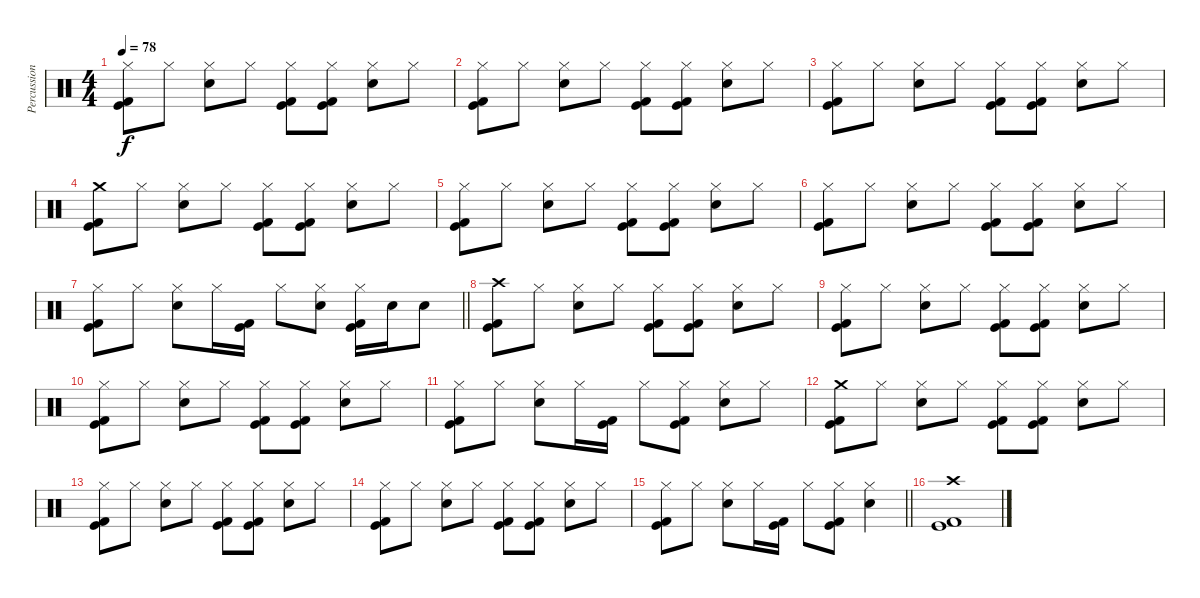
\track ("Percussion" "Percussion") {instrument percussion}
\staff {score}
\articulation defaults
\ts (4 4)
\tempo 78
\clef neutral
\ks c
("Hi-Hat (closed)" "Kick (hit)" "Kick (hit) 2").8{dy f} "Hi-Hat (closed)".8 ("Hi-Hat (closed)" "Electric Snare (hit)").8 "Hi-Hat (closed)".8 ("Hi-Hat (closed)" "Kick (hit)" "Kick (hit) 2").8 ("Hi-Hat (closed)" "Kick (hit)" "Kick (hit) 2").8 ("Hi-Hat (closed)" "Electric Snare (hit)").8 "Hi-Hat (closed)".8 |
("Hi-Hat (closed)" "Kick (hit)" "Kick (hit) 2").8 "Hi-Hat (closed)".8 ("Hi-Hat (closed)" "Electric Snare (hit)").8 "Hi-Hat (closed)".8 ("Hi-Hat (closed)" "Kick (hit)" "Kick (hit) 2").8 ("Hi-Hat (closed)" "Kick (hit)" "Kick (hit) 2").8 ("Hi-Hat (closed)" "Electric Snare (hit)").8 "Hi-Hat (closed)".8 |
("Hi-Hat (closed)" "Kick (hit)" "Kick (hit) 2").8 "Hi-Hat (closed)".8 ("Hi-Hat (closed)" "Electric Snare (hit)").8 "Hi-Hat (closed)".8 ("Hi-Hat (closed)" "Kick (hit)" "Kick (hit) 2").8 ("Hi-Hat (closed)" "Kick (hit)" "Kick (hit) 2").8 ("Hi-Hat (closed)" "Electric Snare (hit)").8 "Hi-Hat (closed)".8 |
("Crash medium (hit)" "Kick (hit)" "Kick (hit) 2").8 "Hi-Hat (closed)".8 ("Hi-Hat (closed)" "Electric Snare (hit)").8 "Hi-Hat (closed)".8 ("Hi-Hat (closed)" "Kick (hit)" "Kick (hit) 2").8 ("Hi-Hat (closed)" "Kick (hit)" "Kick (hit) 2").8 ("Hi-Hat (closed)" "Electric Snare (hit)").8 "Hi-Hat (closed)".8 |
("Hi-Hat (closed)" "Kick (hit)" "Kick (hit) 2").8 "Hi-Hat (closed)".8 ("Hi-Hat (closed)" "Electric Snare (hit)").8 "Hi-Hat (closed)".8 ("Hi-Hat (closed)" "Kick (hit)" "Kick (hit) 2").8 ("Hi-Hat (closed)" "Kick (hit)" "Kick (hit) 2").8 ("Hi-Hat (closed)" "Electric Snare (hit)").8 "Hi-Hat (closed)".8 |
("Hi-Hat (closed)" "Kick (hit)" "Kick (hit) 2").8 "Hi-Hat (closed)".8 ("Hi-Hat (closed)" "Electric Snare (hit)").8 "Hi-Hat (closed)".8 ("Hi-Hat (closed)" "Kick (hit)" "Kick (hit) 2").8 ("Hi-Hat (closed)" "Kick (hit)" "Kick (hit) 2").8 ("Hi-Hat (closed)" "Electric Snare (hit)").8 "Hi-Hat (closed)".8 |
\barLineRight lightlight
("Hi-Hat (closed)" "Kick (hit)" "Kick (hit) 2").8 "Hi-Hat (closed)".8 ("Hi-Hat (closed)" "Electric Snare (hit)").8 "Hi-Hat (closed)".16 ("Kick (hit)" "Kick (hit) 2").16 "Hi-Hat (closed)".8 ("Hi-Hat (closed)" "Electric Snare (hit)").8 ("Hi-Hat (closed)" "Kick (hit)" "Kick (hit) 2").16 "Electric Snare (hit)".16 "Electric Snare (hit)".8 |
\section ("" "")
("Crash high (hit)" "Kick (hit)" "Kick (hit) 2").8 "Hi-Hat (closed)".8 ("Hi-Hat (closed)" "Electric Snare (hit)").8 "Hi-Hat (closed)".8 ("Hi-Hat (closed)" "Kick (hit)" "Kick (hit) 2").8 ("Hi-Hat (closed)" "Kick (hit)" "Kick (hit) 2").8 ("Hi-Hat (closed)" "Electric Snare (hit)").8 "Hi-Hat (closed)".8 |
("Hi-Hat (closed)" "Kick (hit)" "Kick (hit) 2").8 "Hi-Hat (closed)".8 ("Hi-Hat (closed)" "Electric Snare (hit)").8 "Hi-Hat (closed)".8 ("Hi-Hat (closed)" "Kick (hit)" "Kick (hit) 2").8 ("Hi-Hat (closed)" "Kick (hit)" "Kick (hit) 2").8 ("Hi-Hat (closed)" "Electric Snare (hit)").8 "Hi-Hat (closed)".8 |
("Hi-Hat (closed)" "Kick (hit)" "Kick (hit) 2").8 "Hi-Hat (closed)".8 ("Hi-Hat (closed)" "Electric Snare (hit)").8 "Hi-Hat (closed)".8 ("Hi-Hat (closed)" "Kick (hit)" "Kick (hit) 2").8 ("Hi-Hat (closed)" "Kick (hit)" "Kick (hit) 2").8 ("Hi-Hat (closed)" "Electric Snare (hit)").8 "Hi-Hat (closed)".8 |
("Hi-Hat (closed)" "Kick (hit)" "Kick (hit) 2").8 "Hi-Hat (closed)".8 ("Hi-Hat (closed)" "Electric Snare (hit)").8 "Hi-Hat (closed)".16 ("Kick (hit)" "Kick (hit) 2").16 "Hi-Hat (closed)".8 ("Hi-Hat (closed)" "Kick (hit)" "Kick (hit) 2").8 ("Hi-Hat (closed)" "Electric Snare (hit)").8 "Hi-Hat (closed)".8 |
("Crash medium (hit)" "Kick (hit)" "Kick (hit) 2").8 "Hi-Hat (closed)".8 ("Hi-Hat (closed)" "Electric Snare (hit)").8 "Hi-Hat (closed)".8 ("Hi-Hat (closed)" "Kick (hit)" "Kick (hit) 2").8 ("Hi-Hat (closed)" "Kick (hit)" "Kick (hit) 2").8 ("Hi-Hat (closed)" "Electric Snare (hit)").8 "Hi-Hat (closed)".8 |
("Hi-Hat (closed)" "Kick (hit)" "Kick (hit) 2").8 "Hi-Hat (closed)".8 ("Hi-Hat (closed)" "Electric Snare (hit)").8 "Hi-Hat (closed)".8 ("Hi-Hat (closed)" "Kick (hit)" "Kick (hit) 2").8 ("Hi-Hat (closed)" "Kick (hit)" "Kick (hit) 2").8 ("Hi-Hat (closed)" "Electric Snare (hit)").8 "Hi-Hat (closed)".8 |
("Hi-Hat (closed)" "Kick (hit)" "Kick (hit) 2").8 "Hi-Hat (closed)".8 ("Hi-Hat (closed)" "Electric Snare (hit)").8 "Hi-Hat (closed)".8 ("Hi-Hat (closed)" "Kick (hit)" "Kick (hit) 2").8 ("Hi-Hat (closed)" "Kick (hit)" "Kick (hit) 2").8 ("Hi-Hat (closed)" "Electric Snare (hit)").8 "Hi-Hat (closed)".8 |
\barLineRight lightlight
("Hi-Hat (closed)" "Kick (hit)" "Kick (hit) 2").8 "Hi-Hat (closed)".8 ("Hi-Hat (closed)" "Electric Snare (hit)").8 "Hi-Hat (closed)".16 ("Kick (hit)" "Kick (hit) 2").16 "Hi-Hat (closed)".8 ("Hi-Hat (closed)" "Kick (hit)" "Kick (hit) 2").8 ("Hi-Hat (closed)" "Electric Snare (hit)").4 |
\section ("" "")
("Crash high (hit)" "Kick (hit)" "Kick (hit) 2").1
